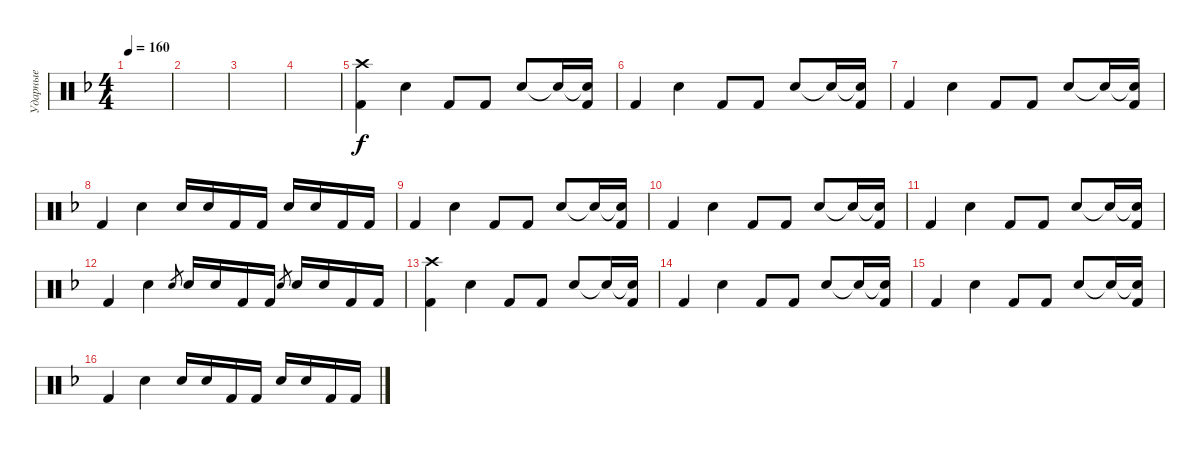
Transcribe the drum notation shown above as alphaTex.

\track ("Ударные" "Ударные") {instrument percussion}
\staff {score}
\articulation defaults
\ts (4 4)
\tempo 160
\clef neutral
\ks dminor
|
|
|
|
("Crash high (hit)" "Kick (hit) 2").4 "Electric Snare (hit)".4 "Kick (hit) 2".8 "Kick (hit) 2".8 "Electric Snare (hit)".8 "Snare (hit)"{t}.16 ("Snare (hit)"{t} "Kick (hit) 2").16 |
"Kick (hit) 2".4 "Electric Snare (hit)".4 "Kick (hit) 2".8 "Kick (hit) 2".8 "Electric Snare (hit)".8 "Snare (hit)"{t}.16 ("Snare (hit)"{t} "Kick (hit) 2").16 |
"Kick (hit) 2".4 "Electric Snare (hit)".4 "Kick (hit) 2".8 "Kick (hit) 2".8 "Electric Snare (hit)".8 "Snare (hit)"{t}.16 ("Snare (hit)"{t} "Kick (hit) 2").16 |
"Kick (hit) 2".4 "Electric Snare (hit)".4 "Electric Snare (hit)".16 "Electric Snare (hit)".16 "Kick (hit) 2".16 "Kick (hit) 2".16 "Electric Snare (hit)".16 "Electric Snare (hit)".16 "Kick (hit) 2".16 "Kick (hit) 2".16 |
"Kick (hit) 2".4 "Electric Snare (hit)".4 "Kick (hit) 2".8 "Kick (hit) 2".8 "Electric Snare (hit)".8 "Snare (hit)"{t}.16 ("Snare (hit)"{t} "Kick (hit) 2").16 |
"Kick (hit) 2".4 "Electric Snare (hit)".4 "Kick (hit) 2".8 "Kick (hit) 2".8 "Electric Snare (hit)".8 "Snare (hit)"{t}.16 ("Snare (hit)"{t} "Kick (hit) 2").16 |
"Kick (hit) 2".4 "Electric Snare (hit)".4 "Kick (hit) 2".8 "Kick (hit) 2".8 "Electric Snare (hit)".8 "Snare (hit)"{t}.16 ("Snare (hit)"{t} "Kick (hit) 2").16 |
"Kick (hit) 2".4 "Electric Snare (hit)".4 "Snare (hit) 2".8{gr} "Electric Snare (hit)".16 "Electric Snare (hit)".16 "Kick (hit) 2".16 "Kick (hit) 2".16 "Snare (hit) 2".8{gr} "Electric Snare (hit)".16 "Electric Snare (hit)".16 "Kick (hit) 2".16 "Kick (hit) 2".16 |
("Crash high (hit)" "Kick (hit) 2").4 "Electric Snare (hit)".4 "Kick (hit) 2".8 "Kick (hit) 2".8 "Electric Snare (hit)".8 "Snare (hit)"{t}.16 ("Snare (hit)"{t} "Kick (hit) 2").16 |
"Kick (hit) 2".4 "Electric Snare (hit)".4 "Kick (hit) 2".8 "Kick (hit) 2".8 "Electric Snare (hit)".8 "Snare (hit)"{t}.16 ("Snare (hit)"{t} "Kick (hit) 2").16 |
"Kick (hit) 2".4 "Electric Snare (hit)".4 "Kick (hit) 2".8 "Kick (hit) 2".8 "Electric Snare (hit)".8 "Snare (hit)"{t}.16 ("Snare (hit)"{t} "Kick (hit) 2").16 |
"Kick (hit) 2".4 "Electric Snare (hit)".4 "Electric Snare (hit)".16 "Electric Snare (hit)".16 "Kick (hit) 2".16 "Kick (hit) 2".16 "Electric Snare (hit)".16 "Electric Snare (hit)".16 "Kick (hit) 2".16 "Kick (hit) 2".16
